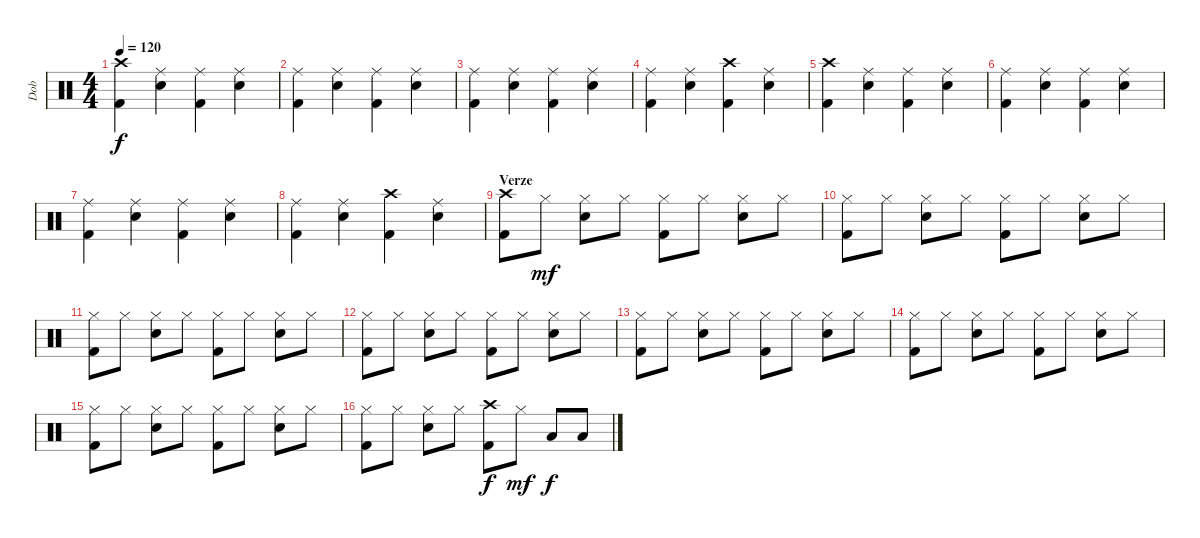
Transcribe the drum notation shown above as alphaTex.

\track ("Dob" "Dob") {instrument percussion}
\staff {score}
\articulation defaults
\ts (4 4)
\tempo 120
\clef neutral
\ks c
("Crash high (hit)" "Kick (hit) 2").4{dy f} ("Ride (middle)" "Electric Snare (hit)").4 ("Ride (middle)" "Kick (hit) 2").4 ("Ride (middle)" "Electric Snare (hit)").4 |
("Ride (middle)" "Kick (hit) 2").4 ("Ride (middle)" "Electric Snare (hit)").4 ("Ride (middle)" "Kick (hit) 2").4 ("Ride (middle)" "Electric Snare (hit)").4 |
("Ride (middle)" "Kick (hit) 2").4 ("Ride (middle)" "Electric Snare (hit)").4 ("Ride (middle)" "Kick (hit) 2").4 ("Ride (middle)" "Electric Snare (hit)").4 |
("Ride (middle)" "Kick (hit) 2").4 ("Ride (middle)" "Electric Snare (hit)").4 ("Crash high (hit)" "Kick (hit) 2").4 ("Ride (middle)" "Electric Snare (hit)").4 |
("Crash high (hit)" "Kick (hit) 2").4 ("Ride (middle)" "Electric Snare (hit)").4 ("Ride (middle)" "Kick (hit) 2").4 ("Ride (middle)" "Electric Snare (hit)").4 |
("Ride (middle)" "Kick (hit) 2").4 ("Ride (middle)" "Electric Snare (hit)").4 ("Ride (middle)" "Kick (hit) 2").4 ("Ride (middle)" "Electric Snare (hit)").4 |
("Ride (middle)" "Kick (hit) 2").4 ("Ride (middle)" "Electric Snare (hit)").4 ("Ride (middle)" "Kick (hit) 2").4 ("Ride (middle)" "Electric Snare (hit)").4 |
("Ride (middle)" "Kick (hit) 2").4 ("Ride (middle)" "Electric Snare (hit)").4 ("Crash high (hit)" "Kick (hit) 2").4 ("Ride (middle)" "Electric Snare (hit)").4 |
\section ("" "Verze")
("Crash high (hit)" "Kick (hit) 2").8 "Hi-Hat (closed)".8{dy mf} ("Hi-Hat (closed)" "Electric Snare (hit)").8 "Hi-Hat (closed)".8 ("Hi-Hat (closed)" "Kick (hit) 2").8 "Hi-Hat (closed)".8 ("Hi-Hat (closed)" "Electric Snare (hit)").8 "Hi-Hat (closed)".8 |
("Hi-Hat (closed)" "Kick (hit) 2").8 "Hi-Hat (closed)".8 ("Hi-Hat (closed)" "Electric Snare (hit)").8 "Hi-Hat (closed)".8 ("Hi-Hat (closed)" "Kick (hit) 2").8 "Hi-Hat (closed)".8 ("Hi-Hat (closed)" "Electric Snare (hit)").8 "Hi-Hat (closed)".8 |
("Hi-Hat (closed)" "Kick (hit) 2").8 "Hi-Hat (closed)".8 ("Hi-Hat (closed)" "Electric Snare (hit)").8 "Hi-Hat (closed)".8 ("Hi-Hat (closed)" "Kick (hit) 2").8 "Hi-Hat (closed)".8 ("Hi-Hat (closed)" "Electric Snare (hit)").8 "Hi-Hat (closed)".8 |
("Hi-Hat (closed)" "Kick (hit) 2").8 "Hi-Hat (closed)".8 ("Hi-Hat (closed)" "Electric Snare (hit)").8 "Hi-Hat (closed)".8 ("Hi-Hat (closed)" "Kick (hit) 2").8 "Hi-Hat (closed)".8 ("Hi-Hat (closed)" "Electric Snare (hit)").8 "Hi-Hat (closed)".8 |
("Hi-Hat (closed)" "Kick (hit) 2").8 "Hi-Hat (closed)".8 ("Hi-Hat (closed)" "Electric Snare (hit)").8 "Hi-Hat (closed)".8 ("Hi-Hat (closed)" "Kick (hit) 2").8 "Hi-Hat (closed)".8 ("Hi-Hat (closed)" "Electric Snare (hit)").8 "Hi-Hat (closed)".8 |
("Hi-Hat (closed)" "Kick (hit) 2").8 "Hi-Hat (closed)".8 ("Hi-Hat (closed)" "Electric Snare (hit)").8 "Hi-Hat (closed)".8 ("Hi-Hat (closed)" "Kick (hit) 2").8 "Hi-Hat (closed)".8 ("Hi-Hat (closed)" "Electric Snare (hit)").8 "Hi-Hat (closed)".8 |
("Hi-Hat (closed)" "Kick (hit) 2").8 "Hi-Hat (closed)".8 ("Hi-Hat (closed)" "Electric Snare (hit)").8 "Hi-Hat (closed)".8 ("Hi-Hat (closed)" "Kick (hit) 2").8 "Hi-Hat (closed)".8 ("Hi-Hat (closed)" "Electric Snare (hit)").8 "Hi-Hat (closed)".8 |
("Hi-Hat (closed)" "Kick (hit) 2").8 "Hi-Hat (closed)".8 ("Hi-Hat (closed)" "Electric Snare (hit)").8 "Hi-Hat (closed)".8 ("Crash high (hit)" "Kick (hit) 2").8{dy f} "Hi-Hat (closed)".8{dy mf} "Low Tom (hit)".8{dy f} "Low Tom (hit)".8
